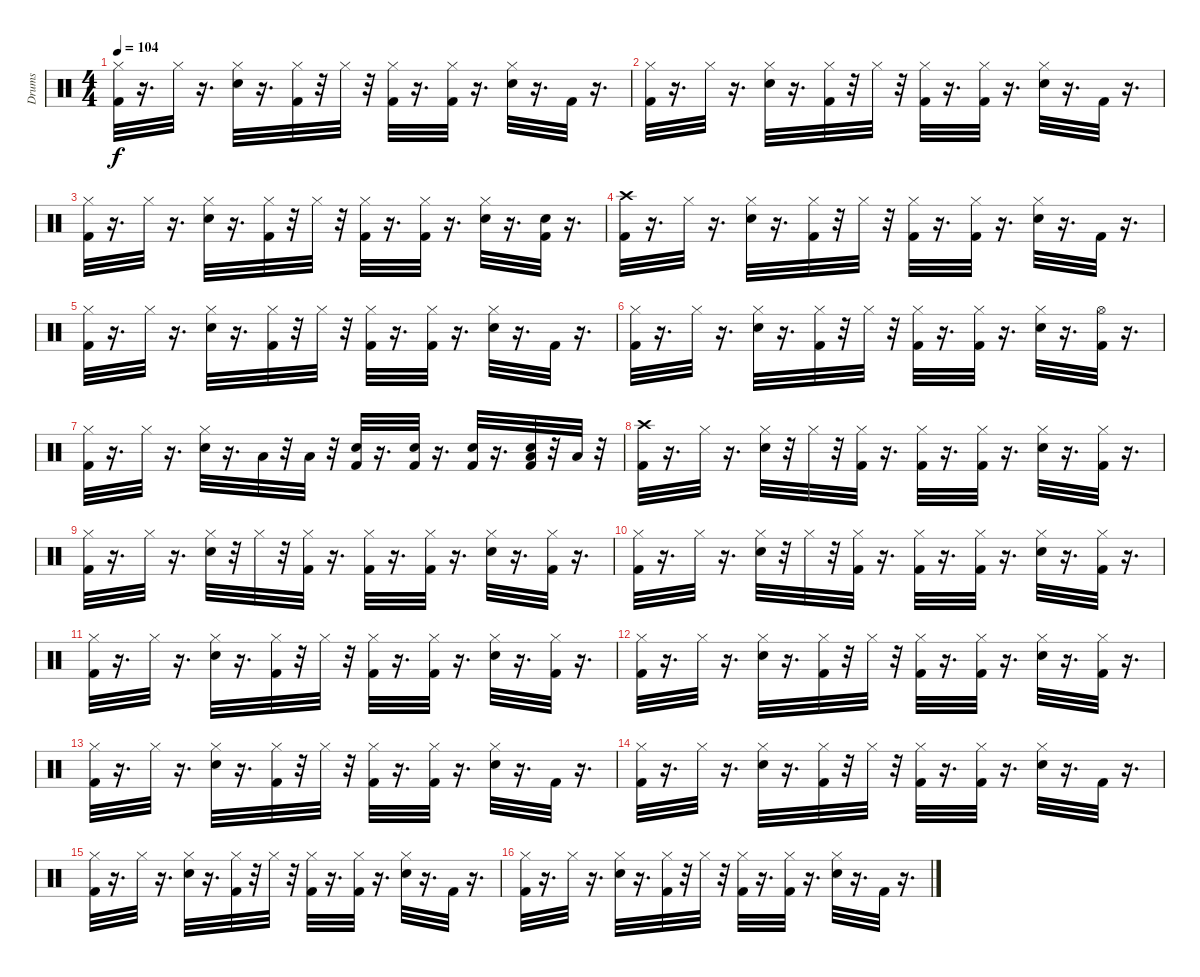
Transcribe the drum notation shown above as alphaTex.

\track ("Drums" "Drums") {instrument percussion}
\staff {score}
\articulation defaults
\ts (4 4)
\tempo 104
\clef neutral
\ks c
("Hi-Hat (closed)" "Kick (hit) 2").32{dy f} r.16{d} "Hi-Hat (closed)".32 r.16{d} ("Hi-Hat (closed)" "Snare (hit) 2").32 r.16{d} ("Hi-Hat (closed)" "Kick (hit) 2").32 r.32 "Hi-Hat (closed)".32 r.32 ("Hi-Hat (closed)" "Kick (hit) 2").32 r.16{d} ("Hi-Hat (closed)" "Kick (hit) 2").32 r.16{d} ("Hi-Hat (closed)" "Snare (hit) 2").32 r.16{d} "Kick (hit) 2".32 r.16{d} |
("Hi-Hat (closed)" "Kick (hit) 2").32 r.16{d} "Hi-Hat (closed)".32 r.16{d} ("Hi-Hat (closed)" "Snare (hit) 2").32 r.16{d} ("Hi-Hat (closed)" "Kick (hit) 2").32 r.32 "Hi-Hat (closed)".32 r.32 ("Hi-Hat (closed)" "Kick (hit) 2").32 r.16{d} ("Hi-Hat (closed)" "Kick (hit) 2").32 r.16{d} ("Hi-Hat (closed)" "Snare (hit) 2").32 r.16{d} "Kick (hit) 2".32 r.16{d} |
("Hi-Hat (closed)" "Kick (hit) 2").32 r.16{d} "Hi-Hat (closed)".32 r.16{d} ("Hi-Hat (closed)" "Snare (hit) 2").32 r.16{d} ("Hi-Hat (closed)" "Kick (hit) 2").32 r.32 "Hi-Hat (closed)".32 r.32 ("Hi-Hat (closed)" "Kick (hit) 2").32 r.16{d} ("Hi-Hat (closed)" "Kick (hit) 2").32 r.16{d} ("Hi-Hat (closed)" "Snare (hit) 2").32 r.16{d} ("Snare (hit) 2" "Kick (hit) 2").32 r.16{d} |
("Crash high (hit)" "Kick (hit) 2").32 r.16{d} "Hi-Hat (closed)".32 r.16{d} ("Hi-Hat (closed)" "Snare (hit) 2").32 r.16{d} ("Hi-Hat (closed)" "Kick (hit) 2").32 r.32 "Hi-Hat (closed)".32 r.32 ("Hi-Hat (closed)" "Kick (hit) 2").32 r.16{d} ("Hi-Hat (closed)" "Kick (hit) 2").32 r.16{d} ("Hi-Hat (closed)" "Snare (hit) 2").32 r.16{d} "Kick (hit) 2".32 r.16{d} |
("Hi-Hat (closed)" "Kick (hit) 2").32 r.16{d} "Hi-Hat (closed)".32 r.16{d} ("Hi-Hat (closed)" "Snare (hit) 2").32 r.16{d} ("Hi-Hat (closed)" "Kick (hit) 2").32 r.32 "Hi-Hat (closed)".32 r.32 ("Hi-Hat (closed)" "Kick (hit) 2").32 r.16{d} ("Hi-Hat (closed)" "Kick (hit) 2").32 r.16{d} ("Hi-Hat (closed)" "Snare (hit) 2").32 r.16{d} "Kick (hit) 2".32 r.16{d} |
("Hi-Hat (closed)" "Kick (hit) 2").32 r.16{d} "Hi-Hat (closed)".32 r.16{d} ("Hi-Hat (closed)" "Snare (hit) 2").32 r.16{d} ("Hi-Hat (closed)" "Kick (hit) 2").32 r.32 "Hi-Hat (closed)".32 r.32 ("Hi-Hat (closed)" "Kick (hit) 2").32 r.16{d} ("Hi-Hat (closed)" "Kick (hit) 2").32 r.16{d} ("Hi-Hat (closed)" "Snare (hit) 2").32 r.16{d} ("Hi-Hat (open)" "Kick (hit) 2").32 r.16{d} |
("Hi-Hat (closed)" "Kick (hit) 2").32 r.16{d} "Hi-Hat (closed)".32 r.16{d} ("Hi-Hat (closed)" "Snare (hit) 2").32 r.16{d} "Low Floor Tom (hit)".32 r.32 "Low Floor Tom (hit)".32 r.32 ("Snare (hit) 2" "Kick (hit) 2").32 r.16{d} ("Snare (hit) 2" "Kick (hit) 2").32 r.16{d} ("Snare (hit) 2" "Kick (hit) 2").32 r.16{d} ("Low Floor Tom (hit)" "Snare (hit) 2" "Kick (hit) 2").32 r.32 "Low Floor Tom (hit)".32 r.32 |
("Crash high (hit)" "Kick (hit) 2").32 r.16{d} "Hi-Hat (closed)".32 r.16{d} ("Hi-Hat (closed)" "Snare (hit) 2").32 r.32 "Hi-Hat (closed)".32 r.32 ("Hi-Hat (closed)" "Kick (hit) 2").32 r.16{d} ("Hi-Hat (closed)" "Kick (hit) 2").32 r.16{d} ("Hi-Hat (closed)" "Kick (hit) 2").32 r.16{d} ("Hi-Hat (closed)" "Snare (hit) 2").32 r.16{d} ("Hi-Hat (closed)" "Kick (hit) 2").32 r.16{d} |
("Hi-Hat (closed)" "Kick (hit) 2").32 r.16{d} "Hi-Hat (closed)".32 r.16{d} ("Hi-Hat (closed)" "Snare (hit) 2").32 r.32 "Hi-Hat (closed)".32 r.32 ("Hi-Hat (closed)" "Kick (hit) 2").32 r.16{d} ("Hi-Hat (closed)" "Kick (hit) 2").32 r.16{d} ("Hi-Hat (closed)" "Kick (hit) 2").32 r.16{d} ("Hi-Hat (closed)" "Snare (hit) 2").32 r.16{d} ("Hi-Hat (closed)" "Kick (hit) 2").32 r.16{d} |
("Hi-Hat (closed)" "Kick (hit) 2").32 r.16{d} "Hi-Hat (closed)".32 r.16{d} ("Hi-Hat (closed)" "Snare (hit) 2").32 r.32 "Hi-Hat (closed)".32 r.32 ("Hi-Hat (closed)" "Kick (hit) 2").32 r.16{d} ("Hi-Hat (closed)" "Kick (hit) 2").32 r.16{d} ("Hi-Hat (closed)" "Kick (hit) 2").32 r.16{d} ("Hi-Hat (closed)" "Snare (hit) 2").32 r.16{d} ("Hi-Hat (closed)" "Kick (hit) 2").32 r.16{d} |
("Hi-Hat (closed)" "Kick (hit) 2").32 r.16{d} "Hi-Hat (closed)".32 r.16{d} ("Hi-Hat (closed)" "Snare (hit) 2").32 r.16{d} ("Hi-Hat (closed)" "Kick (hit) 2").32 r.32 "Hi-Hat (closed)".32 r.32 ("Hi-Hat (closed)" "Kick (hit) 2").32 r.16{d} ("Hi-Hat (closed)" "Kick (hit) 2").32 r.16{d} ("Hi-Hat (closed)" "Snare (hit) 2").32 r.16{d} ("Hi-Hat (closed)" "Kick (hit) 2").32 r.16{d} |
("Hi-Hat (closed)" "Kick (hit) 2").32 r.16{d} "Hi-Hat (closed)".32 r.16{d} ("Hi-Hat (closed)" "Snare (hit) 2").32 r.16{d} ("Hi-Hat (closed)" "Kick (hit) 2").32 r.32 "Hi-Hat (closed)".32 r.32 ("Hi-Hat (closed)" "Kick (hit) 2").32 r.16{d} ("Hi-Hat (closed)" "Kick (hit) 2").32 r.16{d} ("Hi-Hat (closed)" "Snare (hit) 2").32 r.16{d} ("Hi-Hat (closed)" "Kick (hit) 2").32 r.16{d} |
("Hi-Hat (closed)" "Kick (hit) 2").32 r.16{d} "Hi-Hat (closed)".32 r.16{d} ("Hi-Hat (closed)" "Snare (hit) 2").32 r.16{d} ("Hi-Hat (closed)" "Kick (hit) 2").32 r.32 "Hi-Hat (closed)".32 r.32 ("Hi-Hat (closed)" "Kick (hit) 2").32 r.16{d} ("Hi-Hat (closed)" "Kick (hit) 2").32 r.16{d} ("Hi-Hat (closed)" "Snare (hit) 2").32 r.16{d} "Kick (hit) 2".32 r.16{d} |
("Hi-Hat (closed)" "Kick (hit) 2").32 r.16{d} "Hi-Hat (closed)".32 r.16{d} ("Hi-Hat (closed)" "Snare (hit) 2").32 r.16{d} ("Hi-Hat (closed)" "Kick (hit) 2").32 r.32 "Hi-Hat (closed)".32 r.32 ("Hi-Hat (closed)" "Kick (hit) 2").32 r.16{d} ("Hi-Hat (closed)" "Kick (hit) 2").32 r.16{d} ("Hi-Hat (closed)" "Snare (hit) 2").32 r.16{d} "Kick (hit) 2".32 r.16{d} |
("Hi-Hat (closed)" "Kick (hit) 2").32 r.16{d} "Hi-Hat (closed)".32 r.16{d} ("Hi-Hat (closed)" "Snare (hit) 2").32 r.16{d} ("Hi-Hat (closed)" "Kick (hit) 2").32 r.32 "Hi-Hat (closed)".32 r.32 ("Hi-Hat (closed)" "Kick (hit) 2").32 r.16{d} ("Hi-Hat (closed)" "Kick (hit) 2").32 r.16{d} ("Hi-Hat (closed)" "Snare (hit) 2").32 r.16{d} "Kick (hit) 2".32 r.16{d} |
("Hi-Hat (closed)" "Kick (hit) 2").32 r.16{d} "Hi-Hat (closed)".32 r.16{d} ("Hi-Hat (closed)" "Snare (hit) 2").32 r.16{d} ("Hi-Hat (closed)" "Kick (hit) 2").32 r.32 "Hi-Hat (closed)".32 r.32 ("Hi-Hat (closed)" "Kick (hit) 2").32 r.16{d} ("Hi-Hat (closed)" "Kick (hit) 2").32 r.16{d} ("Hi-Hat (closed)" "Snare (hit) 2").32 r.16{d} "Kick (hit) 2".32 r.16{d}
